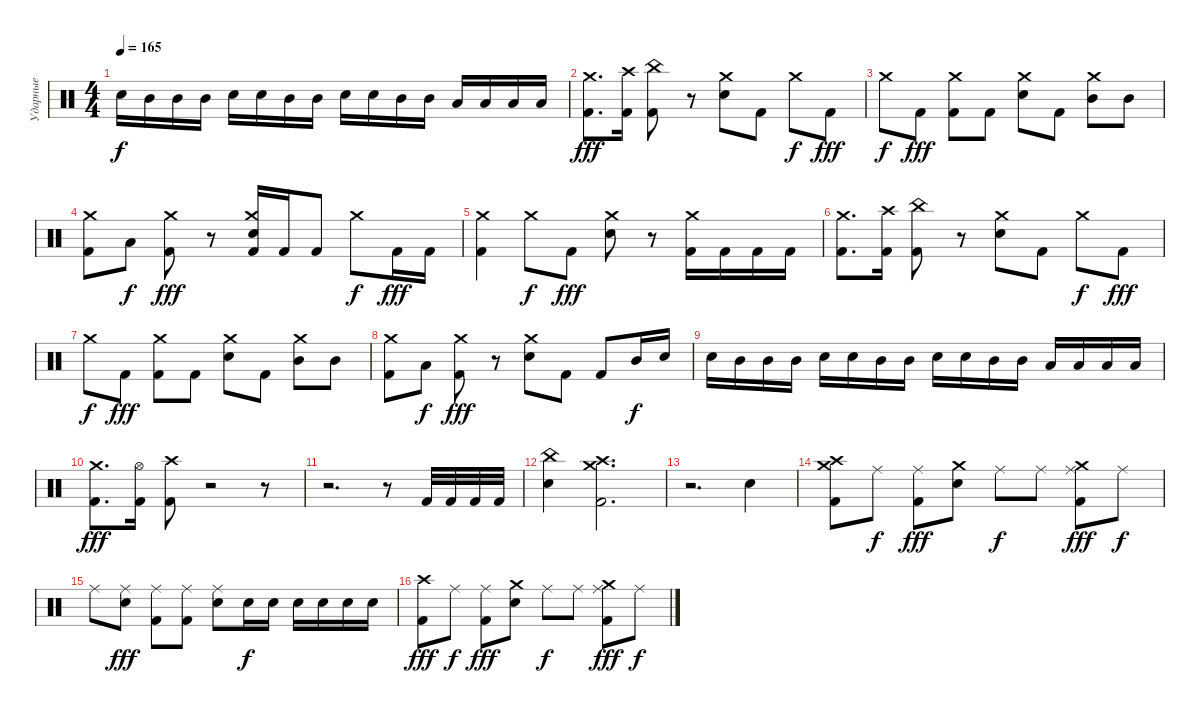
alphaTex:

\track ("Ударные" "Ударные") {instrument percussion}
\staff {score}
\articulation defaults
\ts (4 4)
\tempo 165
\clef neutral
\ks c "Electric Snare (hit)".16{dy f} "Mid Tom (hit)".16 "Mid Tom (hit)".16 "Mid Tom (hit)".16 "Electric Snare (hit)".16 "Electric Snare (hit)".16 "Mid Tom (hit)".16 "Mid Tom (hit)".16 "Electric Snare (hit)".16 "Electric Snare (hit)".16 "Mid Tom (hit)".16 "Mid Tom (hit)".16 "Low Tom (hit)".16 "Low Tom (hit)".16 "Low Floor Tom (hit)".16 "Low Floor Tom (hit)".16
|
("Crash medium (hit)" "Kick (hit) 2").8{d dy fff} ("Crash high (hit)" "Kick (hit) 2").16 ("China (hit)" "Kick (hit) 2").8 r.8 ("Crash medium (hit)" "Electric Snare (hit)").8 "Kick (hit) 2".8 "Crash medium (hit)".8{dy f} "Kick (hit) 2".8{dy fff} |
"Crash medium (hit)".8{dy f} "Kick (hit) 2".8{dy fff} ("Crash medium (hit)" "Kick (hit) 2").8 "Kick (hit) 2".8 ("Crash medium (hit)" "Electric Snare (hit)").8 "Kick (hit) 2".8 ("Crash medium (hit)" "Mid Tom (hit)").8 "Mid Tom (hit)".8 |
("Crash medium (hit)" "Kick (hit) 2").8 "Low Tom (hit)".8{dy f} ("Crash medium (hit)" "Kick (hit) 2").8{dy fff} r.8 ("Crash medium (hit)" "Electric Snare (hit)" "Kick (hit) 2").16 "Kick (hit) 2".16 "Kick (hit) 2".8 "Crash medium (hit)".8{dy f} "Kick (hit) 2".16{dy fff} "Kick (hit) 2".16 |
("Crash medium (hit)" "Kick (hit) 2").4 "Crash medium (hit)".8{dy f} "Kick (hit) 2".8{dy fff} ("Crash medium (hit)" "Electric Snare (hit)").8 r.8 ("Crash medium (hit)" "Kick (hit) 2").16 "Kick (hit) 2".16 "Kick (hit) 2".16 "Kick (hit) 2".16 |
("Crash medium (hit)" "Kick (hit) 2").8{d} ("Crash high (hit)" "Kick (hit) 2").16 ("China (hit)" "Kick (hit) 2").8 r.8 ("Crash medium (hit)" "Electric Snare (hit)").8 "Kick (hit) 2".8 "Crash medium (hit)".8{dy f} "Kick (hit) 2".8{dy fff} |
"Crash medium (hit)".8{dy f} "Kick (hit) 2".8{dy fff} ("Crash medium (hit)" "Kick (hit) 2").8 "Kick (hit) 2".8 ("Crash medium (hit)" "Electric Snare (hit)").8 "Kick (hit) 2".8 ("Crash medium (hit)" "Mid Tom (hit)").8 "Mid Tom (hit)".8 |
("Crash medium (hit)" "Kick (hit) 2").8 "Low Tom (hit)".8{dy f} ("Crash medium (hit)" "Kick (hit) 2").8{dy fff} r.8 ("Crash medium (hit)" "Electric Snare (hit)").8 "Kick (hit) 2".8 "Kick (hit) 2".8 "Mid Tom (hit)".16{dy f} "Electric Snare (hit)".16 |
"Electric Snare (hit)".16 "Mid Tom (hit)".16 "Mid Tom (hit)".16 "Mid Tom (hit)".16 "Electric Snare (hit)".16 "Electric Snare (hit)".16 "Mid Tom (hit)".16 "Mid Tom (hit)".16 "Electric Snare (hit)".16 "Electric Snare (hit)".16 "Mid Tom (hit)".16 "Mid Tom (hit)".16 "Low Tom (hit)".16 "Low Tom (hit)".16 "Low Floor Tom (hit)".16 "Low Floor Tom (hit)".16 |
("Crash medium (hit)" "Kick (hit) 2").8{d dy fff} ("Hi-Hat (open)" "Kick (hit) 2").16 ("Crash high (hit)" "Kick (hit) 2").8 r.2 r.8 |
r.2{d} r.8 "Kick (hit) 2".32 "Kick (hit) 2".32 "Kick (hit) 2".32 "Kick (hit) 2".32 |
("China (hit)" "Electric Snare (hit)").4 ("Crash high (hit)" "Crash medium (hit)" "Kick (hit) 2").2{d} |
r.2{d} "Electric Snare (hit)".4 |
("Crash high (hit)" "Crash medium (hit)" "Kick (hit) 2").8 "Ride (middle)".8{dy f} ("Ride (middle)" "Kick (hit) 2").8{dy fff} ("Crash medium (hit)" "Electric Snare (hit)").8 "Ride (middle)".8{dy f} "Ride (middle)".8 ("Crash medium (hit)" "Ride (middle)" "Kick (hit) 2").8{dy fff} "Ride (middle)".8{dy f} |
"Ride (middle)".8 ("Ride (middle)" "Electric Snare (hit)").8{dy fff} ("Ride (middle)" "Kick (hit) 2").8 ("Ride (middle)" "Kick (hit) 2").8 ("Ride (middle)" "Electric Snare (hit)").8 "Electric Snare (hit)".16{dy f} "Electric Snare (hit)".16 "Electric Snare (hit)".16 "Electric Snare (hit)".16 "Electric Snare (hit)".16 "Electric Snare (hit)".16 |
("Crash high (hit)" "Kick (hit) 2").8{dy fff} "Ride (middle)".8{dy f} ("Ride (middle)" "Kick (hit) 2").8{dy fff} ("Crash medium (hit)" "Electric Snare (hit)").8 "Ride (middle)".8{dy f} "Ride (middle)".8 ("Crash medium (hit)" "Ride (middle)" "Kick (hit) 2").8{dy fff} "Ride (middle)".8{dy f}
